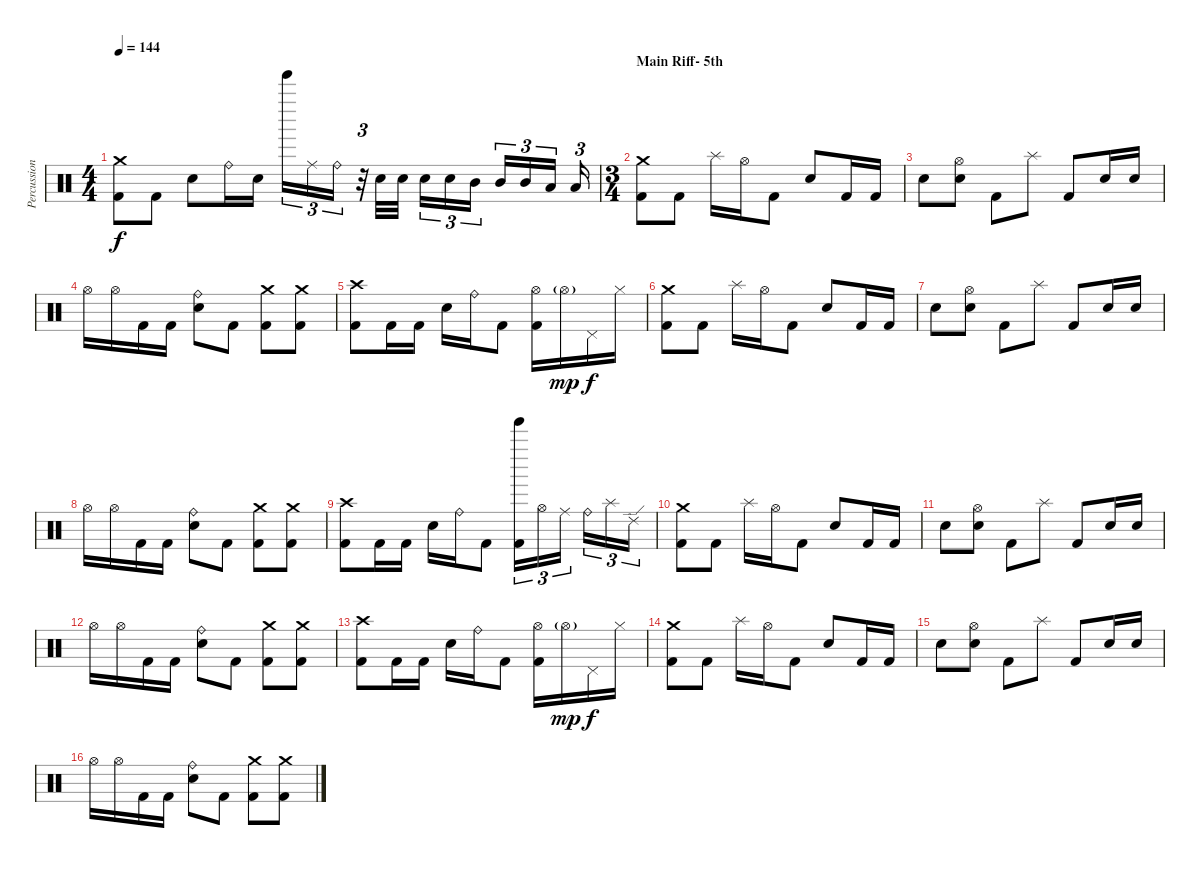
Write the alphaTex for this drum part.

\track ("Percussion" "Percussion") {instrument percussion}
\staff {score}
\articulation defaults
\ts (4 4)
\tempo 144
\clef neutral
\ks c
("Crash medium (hit)" "Kick (hit) 2").8{dy f} "Kick (hit) 2".8 "Electric Snare (hit)".8 "Ride (bell)".16 "Electric Snare (hit)".16 "Tinkle Bell (hit)".16{tu (3 2)} "Ride (middle)".16{tu (3 2)} "Ride (bell)".16{tu (3 2)} r.32{tu (3 2)} "Electric Snare (hit)".32 "Electric Snare (hit)".32 "Electric Snare (hit)".16{tu (3 2)} "Electric Snare (hit)".16{tu (3 2)} "Mid Tom (hit)".16{tu (3 2)} "Mid Tom (hit)".16{tu (3 2)} "Mid Tom (hit)".16{tu (3 2)} "Low Tom (hit)".16{tu (3 2)} "Low Tom (hit)".16{tu (3 2)} |
\ts (3 4)
\section ("" "Main Riff- 5th")
("Crash medium (hit)" "Kick (hit) 2").8 "Kick (hit) 2".8 "Splash (hit)".16 "Hi-Hat (open)".16 "Kick (hit) 2".8 "Electric Snare (hit)".8 "Kick (hit) 2".16 "Kick (hit) 2".16 |
"Electric Snare (hit)".8 ("Hi-Hat (open)" "Electric Snare (hit)").8 "Kick (hit) 2".8 "Splash (hit)".8 "Kick (hit) 2".8 "Electric Snare (hit)".16 "Electric Snare (hit)".16 |
"Hi-Hat (open)".16 "Hi-Hat (open)".16 "Kick (hit) 2".16 "Kick (hit) 2".16 ("Ride (bell)" "Electric Snare (hit)").8 "Kick (hit) 2".8 ("Crash medium (hit)" "Kick (hit) 2").8 ("Crash medium (hit)" "Kick (hit) 2").8 |
("Crash high (hit)" "Kick (hit) 2").8 "Kick (hit) 2".16 "Kick (hit) 2".16 "Electric Snare (hit)".16 "Ride (bell)".16 "Kick (hit) 2".8 ("Hi-Hat (open)" "Kick (hit) 2").16 "Hi-Hat (open)"{g}.16{dy mp} "Pedal Hi-Hat (hit)".16{dy f} "Hi-Hat (closed)".16 |
("Crash medium (hit)" "Kick (hit) 2").8 "Kick (hit) 2".8 "Splash (hit)".16 "Hi-Hat (open)".16 "Kick (hit) 2".8 "Electric Snare (hit)".8 "Kick (hit) 2".16 "Kick (hit) 2".16 |
"Electric Snare (hit)".8 ("Hi-Hat (open)" "Electric Snare (hit)").8 "Kick (hit) 2".8 "Splash (hit)".8 "Kick (hit) 2".8 "Electric Snare (hit)".16 "Electric Snare (hit)".16 |
"Hi-Hat (open)".16 "Hi-Hat (open)".16 "Kick (hit) 2".16 "Kick (hit) 2".16 ("Ride (bell)" "Electric Snare (hit)").8 "Kick (hit) 2".8 ("Crash medium (hit)" "Kick (hit) 2").8 ("Crash medium (hit)" "Kick (hit) 2").8 |
("Crash high (hit)" "Kick (hit) 2").8 "Kick (hit) 2".16 "Kick (hit) 2".16 "Electric Snare (hit)".16 "Ride (bell)".16 "Kick (hit) 2".8 ("Tinkle Bell (hit)" "Kick (hit) 2").16{tu (3 2)} "Hi-Hat (open)".16{tu (3 2)} "Ride (middle)".16{tu (3 2)} "Ride (bell)".16{tu (3 2)} "Splash (hit)".16{tu (3 2)} "Ride (edge) 2".16{tu (3 2)} |
("Crash medium (hit)" "Kick (hit) 2").8 "Kick (hit) 2".8 "Splash (hit)".16 "Hi-Hat (open)".16 "Kick (hit) 2".8 "Electric Snare (hit)".8 "Kick (hit) 2".16 "Kick (hit) 2".16 |
"Electric Snare (hit)".8 ("Hi-Hat (open)" "Electric Snare (hit)").8 "Kick (hit) 2".8 "Splash (hit)".8 "Kick (hit) 2".8 "Electric Snare (hit)".16 "Electric Snare (hit)".16 |
"Hi-Hat (open)".16 "Hi-Hat (open)".16 "Kick (hit) 2".16 "Kick (hit) 2".16 ("Ride (bell)" "Electric Snare (hit)").8 "Kick (hit) 2".8 ("Crash medium (hit)" "Kick (hit) 2").8 ("Crash medium (hit)" "Kick (hit) 2").8 |
("Crash high (hit)" "Kick (hit) 2").8 "Kick (hit) 2".16 "Kick (hit) 2".16 "Electric Snare (hit)".16 "Ride (bell)".16 "Kick (hit) 2".8 ("Hi-Hat (open)" "Kick (hit) 2").16 "Hi-Hat (open)"{g}.16{dy mp} "Pedal Hi-Hat (hit)".16{dy f} "Hi-Hat (closed)".16 |
("Crash medium (hit)" "Kick (hit) 2").8 "Kick (hit) 2".8 "Splash (hit)".16 "Hi-Hat (open)".16 "Kick (hit) 2".8 "Electric Snare (hit)".8 "Kick (hit) 2".16 "Kick (hit) 2".16 |
"Electric Snare (hit)".8 ("Hi-Hat (open)" "Electric Snare (hit)").8 "Kick (hit) 2".8 "Splash (hit)".8 "Kick (hit) 2".8 "Electric Snare (hit)".16 "Electric Snare (hit)".16 |
"Hi-Hat (open)".16 "Hi-Hat (open)".16 "Kick (hit) 2".16 "Kick (hit) 2".16 ("Ride (bell)" "Electric Snare (hit)").8 "Kick (hit) 2".8 ("Crash medium (hit)" "Kick (hit) 2").8 ("Crash medium (hit)" "Kick (hit) 2").8
